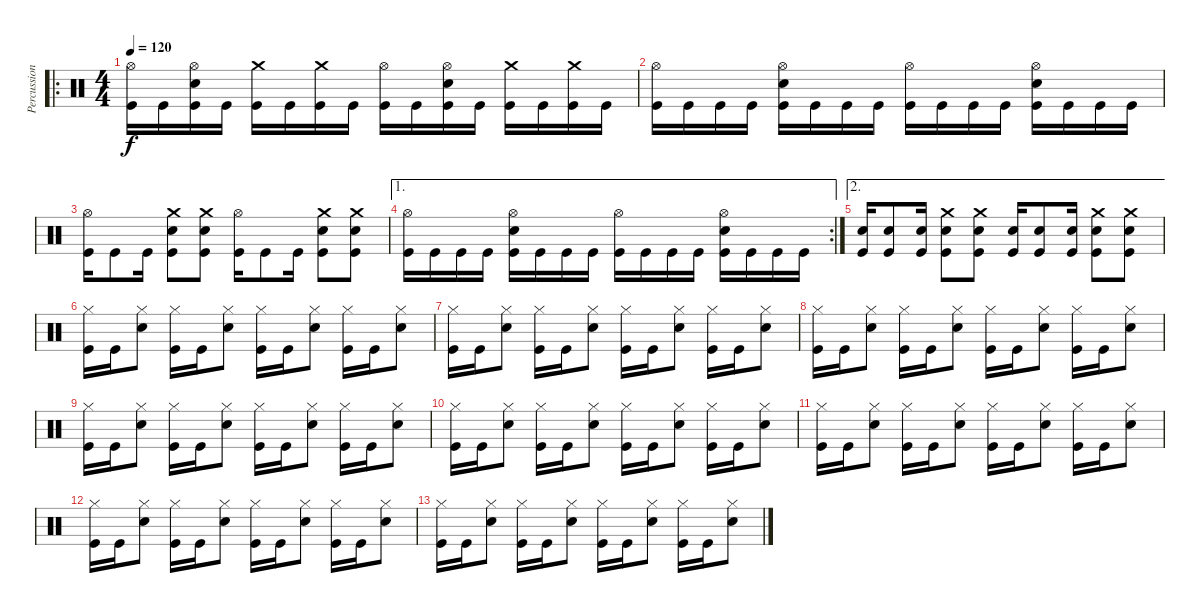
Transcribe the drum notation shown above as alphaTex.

\track ("Percussion" "Percussion") {instrument percussion}
\staff {score}
\articulation defaults
\ro
\ts (4 4)
\tempo 120
\clef neutral
\ks c
("Hi-Hat (open)" "Kick (hit)").16{dy f} "Kick (hit)".16 ("Hi-Hat (open)" "Snare (hit) 2" "Kick (hit)").16 "Kick (hit)".16 ("Crash medium (hit)" "Kick (hit)").16 "Kick (hit)".16 ("Crash medium (hit)" "Kick (hit)").16 "Kick (hit)".16 ("Hi-Hat (open)" "Kick (hit)").16 "Kick (hit)".16 ("Hi-Hat (open)" "Snare (hit) 2" "Kick (hit)").16 "Kick (hit)".16 ("Crash medium (hit)" "Kick (hit)").16 "Kick (hit)".16 ("Crash medium (hit)" "Kick (hit)").16 "Kick (hit)".16 |
("Hi-Hat (open)" "Kick (hit)").16 "Kick (hit)".16 "Kick (hit)".16 "Kick (hit)".16 ("Hi-Hat (open)" "Snare (hit) 2" "Kick (hit)").16 "Kick (hit)".16 "Kick (hit)".16 "Kick (hit)".16 ("Hi-Hat (open)" "Kick (hit)").16 "Kick (hit)".16 "Kick (hit)".16 "Kick (hit)".16 ("Hi-Hat (open)" "Snare (hit) 2" "Kick (hit)").16 "Kick (hit)".16 "Kick (hit)".16 "Kick (hit)".16 |
("Hi-Hat (open)" "Kick (hit)").16 "Kick (hit)".8 "Kick (hit)".16 ("Crash medium (hit)" "Snare (hit) 2" "Kick (hit)").8 ("Crash medium (hit)" "Snare (hit) 2" "Kick (hit)").8 ("Hi-Hat (open)" "Kick (hit)").16 "Kick (hit)".8 "Kick (hit)".16 ("Crash medium (hit)" "Snare (hit) 2" "Kick (hit)").8 ("Crash medium (hit)" "Snare (hit) 2" "Kick (hit)").8 |
\ae 1
\rc 2
("Hi-Hat (open)" "Kick (hit)").16 "Kick (hit)".16 "Kick (hit)".16 "Kick (hit)".16 ("Hi-Hat (open)" "Snare (hit) 2" "Kick (hit)").16 "Kick (hit)".16 "Kick (hit)".16 "Kick (hit)".16 ("Hi-Hat (open)" "Kick (hit)").16 "Kick (hit)".16 "Kick (hit)".16 "Kick (hit)".16 ("Hi-Hat (open)" "Snare (hit) 2" "Kick (hit)").16 "Kick (hit)".16 "Kick (hit)".16 "Kick (hit)".16 |
\ae 2
("Snare (hit) 2" "Kick (hit)").16 ("Snare (hit) 2" "Kick (hit)").8 ("Snare (hit) 2" "Kick (hit)").16 ("Crash medium (hit)" "Snare (hit) 2" "Kick (hit)").8 ("Crash medium (hit)" "Snare (hit) 2" "Kick (hit)").8 ("Snare (hit) 2" "Kick (hit)").16 ("Snare (hit) 2" "Kick (hit)").8 ("Snare (hit) 2" "Kick (hit)").16 ("Crash medium (hit)" "Snare (hit) 2" "Kick (hit)").8 ("Crash medium (hit)" "Snare (hit) 2" "Kick (hit)").8 |
("Hi-Hat (closed)" "Kick (hit)").16 "Kick (hit)".16 ("Hi-Hat (closed)" "Snare (hit) 2").8 ("Hi-Hat (closed)" "Kick (hit)").16 "Kick (hit)".16 ("Hi-Hat (closed)" "Snare (hit) 2").8 ("Hi-Hat (closed)" "Kick (hit)").16 "Kick (hit)".16 ("Hi-Hat (closed)" "Snare (hit) 2").8 ("Hi-Hat (closed)" "Kick (hit)").16 "Kick (hit)".16 ("Hi-Hat (closed)" "Snare (hit) 2").8 |
("Hi-Hat (closed)" "Kick (hit)").16 "Kick (hit)".16 ("Hi-Hat (closed)" "Snare (hit) 2").8 ("Hi-Hat (closed)" "Kick (hit)").16 "Kick (hit)".16 ("Hi-Hat (closed)" "Snare (hit) 2").8 ("Hi-Hat (closed)" "Kick (hit)").16 "Kick (hit)".16 ("Hi-Hat (closed)" "Snare (hit) 2").8 ("Hi-Hat (closed)" "Kick (hit)").16 "Kick (hit)".16 ("Hi-Hat (closed)" "Snare (hit) 2").8 |
("Hi-Hat (closed)" "Kick (hit)").16 "Kick (hit)".16 ("Hi-Hat (closed)" "Snare (hit) 2").8 ("Hi-Hat (closed)" "Kick (hit)").16 "Kick (hit)".16 ("Hi-Hat (closed)" "Snare (hit) 2").8 ("Hi-Hat (closed)" "Kick (hit)").16 "Kick (hit)".16 ("Hi-Hat (closed)" "Snare (hit) 2").8 ("Hi-Hat (closed)" "Kick (hit)").16 "Kick (hit)".16 ("Hi-Hat (closed)" "Snare (hit) 2").8 |
("Hi-Hat (closed)" "Kick (hit)").16 "Kick (hit)".16 ("Hi-Hat (closed)" "Snare (hit) 2").8 ("Hi-Hat (closed)" "Kick (hit)").16 "Kick (hit)".16 ("Hi-Hat (closed)" "Snare (hit) 2").8 ("Hi-Hat (closed)" "Kick (hit)").16 "Kick (hit)".16 ("Hi-Hat (closed)" "Snare (hit) 2").8 ("Hi-Hat (closed)" "Kick (hit)").16 "Kick (hit)".16 ("Hi-Hat (closed)" "Snare (hit) 2").8 |
("Hi-Hat (closed)" "Kick (hit)").16 "Kick (hit)".16 ("Hi-Hat (closed)" "Snare (hit) 2").8 ("Hi-Hat (closed)" "Kick (hit)").16 "Kick (hit)".16 ("Hi-Hat (closed)" "Snare (hit) 2").8 ("Hi-Hat (closed)" "Kick (hit)").16 "Kick (hit)".16 ("Hi-Hat (closed)" "Snare (hit) 2").8 ("Hi-Hat (closed)" "Kick (hit)").16 "Kick (hit)".16 ("Hi-Hat (closed)" "Snare (hit) 2").8 |
("Hi-Hat (closed)" "Kick (hit)").16 "Kick (hit)".16 ("Hi-Hat (closed)" "Snare (hit) 2").8 ("Hi-Hat (closed)" "Kick (hit)").16 "Kick (hit)".16 ("Hi-Hat (closed)" "Snare (hit) 2").8 ("Hi-Hat (closed)" "Kick (hit)").16 "Kick (hit)".16 ("Hi-Hat (closed)" "Snare (hit) 2").8 ("Hi-Hat (closed)" "Kick (hit)").16 "Kick (hit)".16 ("Hi-Hat (closed)" "Snare (hit) 2").8 |
("Hi-Hat (closed)" "Kick (hit)").16 "Kick (hit)".16 ("Hi-Hat (closed)" "Snare (hit) 2").8 ("Hi-Hat (closed)" "Kick (hit)").16 "Kick (hit)".16 ("Hi-Hat (closed)" "Snare (hit) 2").8 ("Hi-Hat (closed)" "Kick (hit)").16 "Kick (hit)".16 ("Hi-Hat (closed)" "Snare (hit) 2").8 ("Hi-Hat (closed)" "Kick (hit)").16 "Kick (hit)".16 ("Hi-Hat (closed)" "Snare (hit) 2").8 |
("Hi-Hat (closed)" "Kick (hit)").16 "Kick (hit)".16 ("Hi-Hat (closed)" "Snare (hit) 2").8 ("Hi-Hat (closed)" "Kick (hit)").16 "Kick (hit)".16 ("Hi-Hat (closed)" "Snare (hit) 2").8 ("Hi-Hat (closed)" "Kick (hit)").16 "Kick (hit)".16 ("Hi-Hat (closed)" "Snare (hit) 2").8 ("Hi-Hat (closed)" "Kick (hit)").16 "Kick (hit)".16 ("Hi-Hat (closed)" "Snare (hit) 2").8
